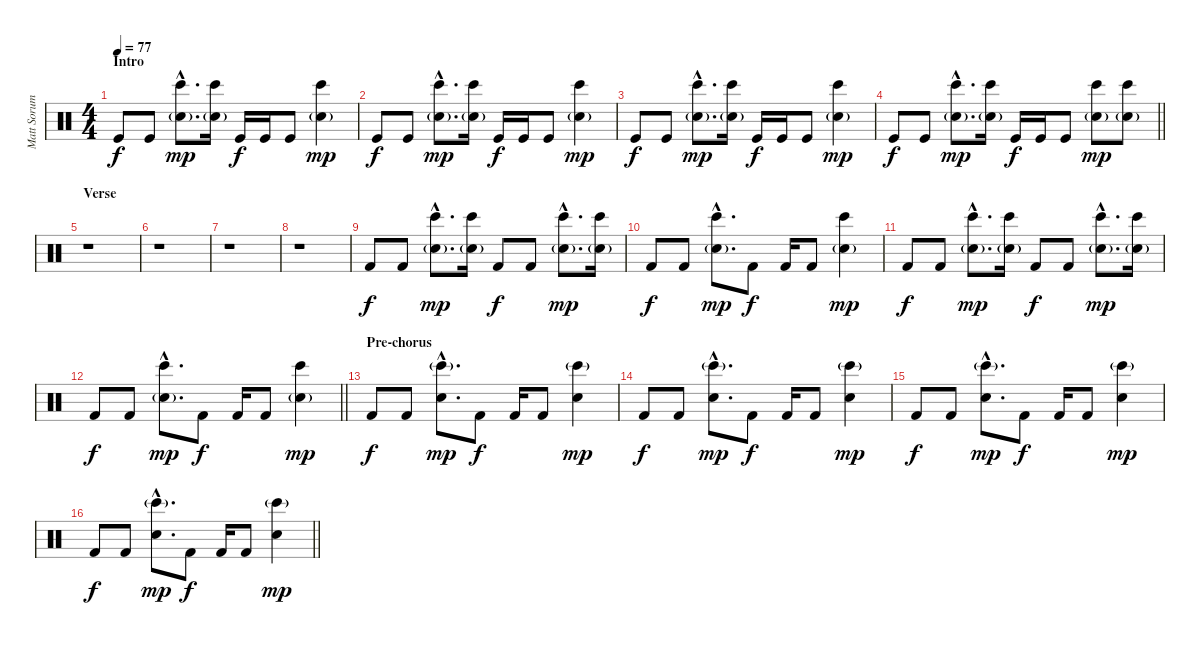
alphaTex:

\track ("Matt Sorum (Drums)" "Matt Sorum") {instrument percussion}
\staff {score}
\articulation defaults
\ts (4 4)
\section ("" "Intro")
\tempo 77
\clef neutral
\ks c "Kick (hit)".8{dy f} "Kick (hit)".8
("Bongo High (hit)"{hac} "Electric Snare (hit)"{g hac}).8{d dy mp} ("Bongo High (hit)" "Electric Snare (hit)"{g}).16 "Kick (hit)".16{dy f} "Kick (hit)".16 "Kick (hit)".8 ("Bongo High (hit)" "Electric Snare (hit)"{g}).4{dy mp} |
"Kick (hit)".8{dy f} "Kick (hit)".8 ("Bongo High (hit)"{hac} "Electric Snare (hit)"{g hac}).8{d dy mp} ("Bongo High (hit)" "Electric Snare (hit)"{g}).16 "Kick (hit)".16{dy f} "Kick (hit)".16 "Kick (hit)".8 ("Bongo High (hit)" "Electric Snare (hit)"{g}).4{dy mp} |
"Kick (hit)".8{dy f} "Kick (hit)".8 ("Bongo High (hit)"{hac} "Electric Snare (hit)"{g hac}).8{d dy mp} ("Bongo High (hit)" "Electric Snare (hit)"{g}).16 "Kick (hit)".16{dy f} "Kick (hit)".16 "Kick (hit)".8 ("Bongo High (hit)" "Electric Snare (hit)"{g}).4{dy mp} |
\barLineRight lightlight "Kick (hit)".8{dy f} "Kick (hit)".8
("Bongo High (hit)"{hac} "Electric Snare (hit)"{g hac}).8{d dy mp} ("Bongo High (hit)" "Electric Snare (hit)"{g}).16 "Kick (hit)".16{dy f} "Kick (hit)".16 "Kick (hit)".8 ("Bongo High (hit)" "Electric Snare (hit)"{g}).8{dy mp} ("Bongo High (hit)" "Electric Snare (hit)"{g}).8 |
\section ("" "Verse")
r.1 |
r.1 |
r.1 |
r.1 |
"Kick (hit) 2".8{dy f} "Kick (hit) 2".8 ("Bongo High (hit)"{hac} "Electric Snare (hit)"{g hac}).8{d dy mp} ("Bongo High (hit)" "Electric Snare (hit)"{g}).16 "Kick (hit) 2".8{dy f} "Kick (hit) 2".8 ("Bongo High (hit)"{hac} "Electric Snare (hit)"{g hac}).8{d dy mp} ("Bongo High (hit)" "Electric Snare (hit)"{g}).16 |
"Kick (hit) 2".8{dy f} "Kick (hit) 2".8 ("Bongo High (hit)"{hac} "Electric Snare (hit)"{g hac}).8{d dy mp} "Kick (hit) 2".8{dy f} "Kick (hit) 2".16 "Kick (hit) 2".8 ("Bongo High (hit)" "Electric Snare (hit)"{g}).4{dy mp} |
"Kick (hit) 2".8{dy f} "Kick (hit) 2".8 ("Bongo High (hit)"{hac} "Electric Snare (hit)"{g hac}).8{d dy mp} ("Bongo High (hit)" "Electric Snare (hit)"{g}).16 "Kick (hit) 2".8{dy f} "Kick (hit) 2".8 ("Bongo High (hit)"{hac} "Electric Snare (hit)"{g hac}).8{d dy mp} ("Bongo High (hit)" "Electric Snare (hit)"{g}).16 |
\barLineRight lightlight "Kick (hit) 2".8{dy f} "Kick (hit) 2".8
("Bongo High (hit)"{hac} "Electric Snare (hit)"{g hac}).8{d dy mp} "Kick (hit) 2".8{dy f} "Kick (hit) 2".16 "Kick (hit) 2".8 ("Bongo High (hit)" "Electric Snare (hit)"{g}).4{dy mp} |
\section ("" "Pre-chorus")
"Kick (hit) 2".8{dy f} "Kick (hit) 2".8 ("Bongo High (hit)"{g hac} "Electric Snare (hit)"{hac}).8{d dy mp} "Kick (hit) 2".8{dy f} "Kick (hit) 2".16 "Kick (hit) 2".8 ("Bongo High (hit)"{g} "Electric Snare (hit)").4{dy mp} |
"Kick (hit) 2".8{dy f} "Kick (hit) 2".8 ("Bongo High (hit)"{g hac} "Electric Snare (hit)"{hac}).8{d dy mp} "Kick (hit) 2".8{dy f} "Kick (hit) 2".16 "Kick (hit) 2".8 ("Bongo High (hit)"{g} "Electric Snare (hit)").4{dy mp} |
"Kick (hit) 2".8{dy f} "Kick (hit) 2".8 ("Bongo High (hit)"{g hac} "Electric Snare (hit)"{hac}).8{d dy mp} "Kick (hit) 2".8{dy f} "Kick (hit) 2".16 "Kick (hit) 2".8 ("Bongo High (hit)"{g} "Electric Snare (hit)").4{dy mp} |
\barLineRight lightlight "Kick (hit) 2".8{dy f} "Kick (hit) 2".8
("Bongo High (hit)"{g hac} "Snare (hit) 2"{hac}).8{d dy mp} "Kick (hit) 2".8{dy f} "Kick (hit) 2".16 "Kick (hit) 2".8 ("Bongo High (hit)"{g} "Snare (hit) 2").4{dy mp}
